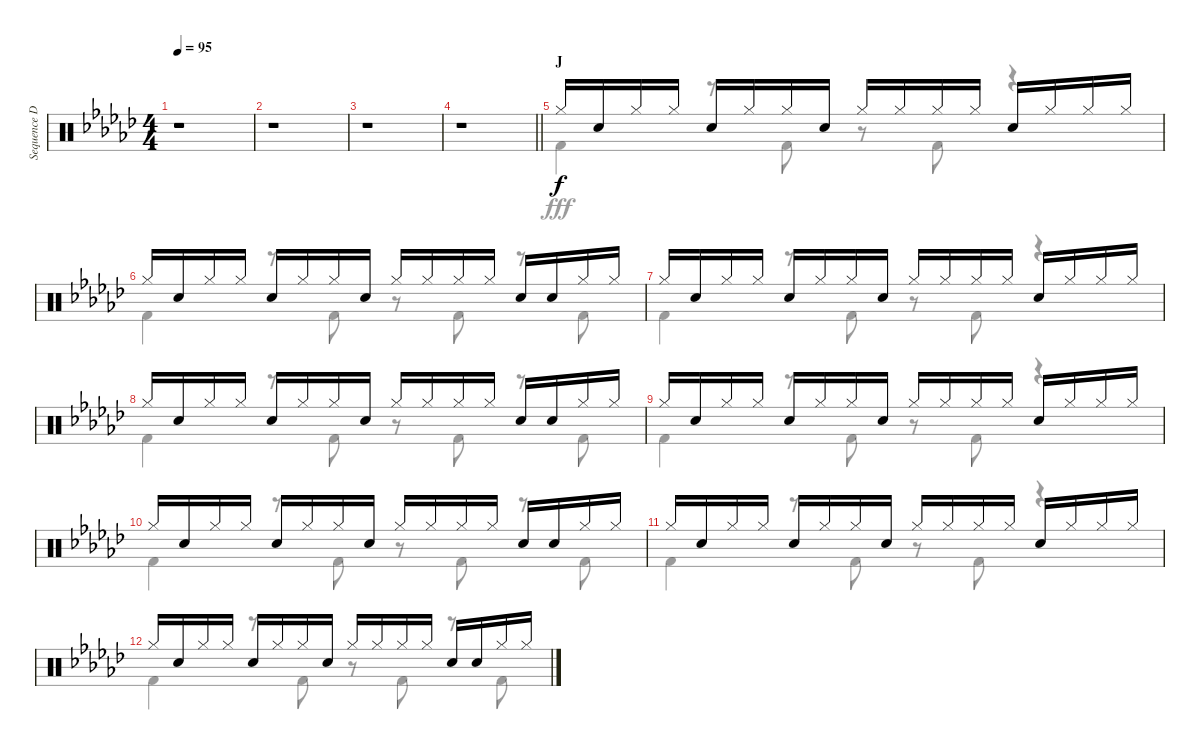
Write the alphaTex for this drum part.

\track ("Sequence Drums" "Sequence D") {instrument percussion}
\staff {score}
\articulation defaults
\voice
\ts (4 4)
\tempo 95
\clef neutral
\ks gb
r.1{dy f} |
r.1 |
r.1 |
\barLineRight lightlight
r.1 |
\section ("" "J")
"Hi-Hat (closed)".16 "Snare (hit) 2".16 "Hi-Hat (closed)".16 "Hi-Hat (closed)".16 "Snare (hit) 2".16 "Hi-Hat (closed)".16 "Hi-Hat (closed)".16 "Snare (hit) 2".16 "Hi-Hat (closed)".16 "Hi-Hat (closed)".16 "Hi-Hat (closed)".16 "Hi-Hat (closed)".16 "Snare (hit) 2".16 "Hi-Hat (closed)".16 "Hi-Hat (closed)".16 "Hi-Hat (closed)".16 |
"Hi-Hat (closed)".16 "Snare (hit) 2".16 "Hi-Hat (closed)".16 "Hi-Hat (closed)".16 "Snare (hit) 2".16 "Hi-Hat (closed)".16 "Hi-Hat (closed)".16 "Snare (hit) 2".16 "Hi-Hat (closed)".16 "Hi-Hat (closed)".16 "Hi-Hat (closed)".16 "Hi-Hat (closed)".16 "Snare (hit) 2".16 "Snare (hit) 2".16 "Hi-Hat (closed)".16 "Hi-Hat (closed)".16 |
"Hi-Hat (closed)".16 "Snare (hit) 2".16 "Hi-Hat (closed)".16 "Hi-Hat (closed)".16 "Snare (hit) 2".16 "Hi-Hat (closed)".16 "Hi-Hat (closed)".16 "Snare (hit) 2".16 "Hi-Hat (closed)".16 "Hi-Hat (closed)".16 "Hi-Hat (closed)".16 "Hi-Hat (closed)".16 "Snare (hit) 2".16 "Hi-Hat (closed)".16 "Hi-Hat (closed)".16 "Hi-Hat (closed)".16 |
"Hi-Hat (closed)".16 "Snare (hit) 2".16 "Hi-Hat (closed)".16 "Hi-Hat (closed)".16 "Snare (hit) 2".16 "Hi-Hat (closed)".16 "Hi-Hat (closed)".16 "Snare (hit) 2".16 "Hi-Hat (closed)".16 "Hi-Hat (closed)".16 "Hi-Hat (closed)".16 "Hi-Hat (closed)".16 "Snare (hit) 2".16 "Snare (hit) 2".16 "Hi-Hat (closed)".16 "Hi-Hat (closed)".16 |
"Hi-Hat (closed)".16 "Snare (hit) 2".16 "Hi-Hat (closed)".16 "Hi-Hat (closed)".16 "Snare (hit) 2".16 "Hi-Hat (closed)".16 "Hi-Hat (closed)".16 "Snare (hit) 2".16 "Hi-Hat (closed)".16 "Hi-Hat (closed)".16 "Hi-Hat (closed)".16 "Hi-Hat (closed)".16 "Snare (hit) 2".16 "Hi-Hat (closed)".16 "Hi-Hat (closed)".16 "Hi-Hat (closed)".16 |
"Hi-Hat (closed)".16 "Snare (hit) 2".16 "Hi-Hat (closed)".16 "Hi-Hat (closed)".16 "Snare (hit) 2".16 "Hi-Hat (closed)".16 "Hi-Hat (closed)".16 "Snare (hit) 2".16 "Hi-Hat (closed)".16 "Hi-Hat (closed)".16 "Hi-Hat (closed)".16 "Hi-Hat (closed)".16 "Snare (hit) 2".16 "Snare (hit) 2".16 "Hi-Hat (closed)".16 "Hi-Hat (closed)".16 |
"Hi-Hat (closed)".16 "Snare (hit) 2".16 "Hi-Hat (closed)".16 "Hi-Hat (closed)".16 "Snare (hit) 2".16 "Hi-Hat (closed)".16 "Hi-Hat (closed)".16 "Snare (hit) 2".16 "Hi-Hat (closed)".16 "Hi-Hat (closed)".16 "Hi-Hat (closed)".16 "Hi-Hat (closed)".16 "Snare (hit) 2".16 "Hi-Hat (closed)".16 "Hi-Hat (closed)".16 "Hi-Hat (closed)".16 |
"Hi-Hat (closed)".16 "Snare (hit) 2".16 "Hi-Hat (closed)".16 "Hi-Hat (closed)".16 "Snare (hit) 2".16 "Hi-Hat (closed)".16 "Hi-Hat (closed)".16 "Snare (hit) 2".16 "Hi-Hat (closed)".16 "Hi-Hat (closed)".16 "Hi-Hat (closed)".16 "Hi-Hat (closed)".16 "Snare (hit) 2".16 "Snare (hit) 2".16 "Hi-Hat (closed)".16 "Hi-Hat (closed)".16
\voice
\clef neutral
\ottava regular
\simile none
\ks gb
r.1{dy fff} |
r.1 |
r.1 |
\barLineRight lightlight
r.1 |
"Kick (hit) 2".4 r.8 "Kick (hit) 2".8 r.8 "Kick (hit) 2".8 r.4 |
"Kick (hit) 2".4 r.8 "Kick (hit) 2".8 r.8 "Kick (hit) 2".8 r.8 "Kick (hit) 2".8 |
"Kick (hit) 2".4 r.8 "Kick (hit) 2".8 r.8 "Kick (hit) 2".8 r.4 |
"Kick (hit) 2".4 r.8 "Kick (hit) 2".8 r.8 "Kick (hit) 2".8 r.8 "Kick (hit) 2".8 |
"Kick (hit) 2".4 r.8 "Kick (hit) 2".8 r.8 "Kick (hit) 2".8 r.4 |
"Kick (hit) 2".4 r.8 "Kick (hit) 2".8 r.8 "Kick (hit) 2".8 r.8 "Kick (hit) 2".8 |
"Kick (hit) 2".4 r.8 "Kick (hit) 2".8 r.8 "Kick (hit) 2".8 r.4 |
"Kick (hit) 2".4 r.8 "Kick (hit) 2".8 r.8 "Kick (hit) 2".8 r.8 "Kick (hit) 2".8
